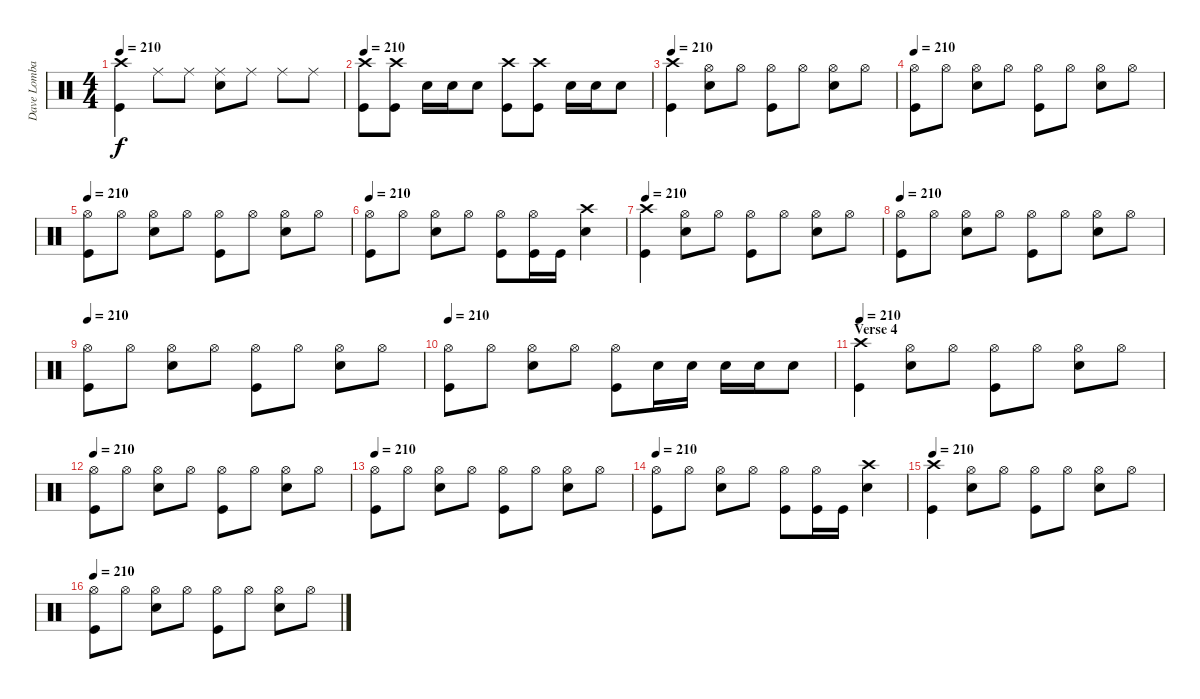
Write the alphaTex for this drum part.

\track ("Dave Lombardo" "Dave Lomba") {instrument percussion}
\staff {score}
\articulation defaults
\ts (4 4)
\tempo 210
\clef neutral
\ks c
("Crash high (hit)" "Kick (hit)").4{dy f} "Ride (middle)".8 "Ride (middle)".8 ("Ride (middle)" "Snare (hit) 2").8 "Ride (middle)".8 "Ride (middle)".8 "Ride (middle)".8 |
\tempo 210
("Crash high (hit)" "Kick (hit)").8 ("Crash high (hit)" "Kick (hit)").8 "Snare (hit) 2".16 "Snare (hit) 2".16 "Snare (hit) 2".8 ("Crash high (hit)" "Kick (hit)").8 ("Crash high (hit)" "Kick (hit)").8 "Snare (hit) 2".16 "Snare (hit) 2".16 "Snare (hit) 2".8 |
\tempo 210
("Crash high (hit)" "Kick (hit)").4 ("Hi-Hat (open)" "Snare (hit) 2").8 "Hi-Hat (open)".8 ("Hi-Hat (open)" "Kick (hit)").8 "Hi-Hat (open)".8 ("Hi-Hat (open)" "Snare (hit) 2").8 "Hi-Hat (open)".8 |
\tempo 210
("Hi-Hat (open)" "Kick (hit)").8 "Hi-Hat (open)".8 ("Hi-Hat (open)" "Snare (hit) 2").8 "Hi-Hat (open)".8 ("Hi-Hat (open)" "Kick (hit)").8 "Hi-Hat (open)".8 ("Hi-Hat (open)" "Snare (hit) 2").8 "Hi-Hat (open)".8 |
\tempo 210
("Hi-Hat (open)" "Kick (hit)").8 "Hi-Hat (open)".8 ("Hi-Hat (open)" "Snare (hit) 2").8 "Hi-Hat (open)".8 ("Hi-Hat (open)" "Kick (hit)").8 "Hi-Hat (open)".8 ("Hi-Hat (open)" "Snare (hit) 2").8 "Hi-Hat (open)".8 |
\tempo 210
("Hi-Hat (open)" "Kick (hit)").8 "Hi-Hat (open)".8 ("Hi-Hat (open)" "Snare (hit) 2").8 "Hi-Hat (open)".8 ("Hi-Hat (open)" "Kick (hit)").8 ("Hi-Hat (open)" "Kick (hit)").16 "Kick (hit)".16 ("Crash high (hit)" "Snare (hit) 2").4 |
\tempo 210
("Crash high (hit)" "Kick (hit)").4 ("Hi-Hat (open)" "Snare (hit) 2").8 "Hi-Hat (open)".8 ("Hi-Hat (open)" "Kick (hit)").8 "Hi-Hat (open)".8 ("Hi-Hat (open)" "Snare (hit) 2").8 "Hi-Hat (open)".8 |
\tempo 210
("Hi-Hat (open)" "Kick (hit)").8 "Hi-Hat (open)".8 ("Hi-Hat (open)" "Snare (hit) 2").8 "Hi-Hat (open)".8 ("Hi-Hat (open)" "Kick (hit)").8 "Hi-Hat (open)".8 ("Hi-Hat (open)" "Snare (hit) 2").8 "Hi-Hat (open)".8 |
\tempo 210
("Hi-Hat (open)" "Kick (hit)").8 "Hi-Hat (open)".8 ("Hi-Hat (open)" "Snare (hit) 2").8 "Hi-Hat (open)".8 ("Hi-Hat (open)" "Kick (hit)").8 "Hi-Hat (open)".8 ("Hi-Hat (open)" "Snare (hit) 2").8 "Hi-Hat (open)".8 |
\tempo 210
("Hi-Hat (open)" "Kick (hit)").8 "Hi-Hat (open)".8 ("Hi-Hat (open)" "Snare (hit) 2").8 "Hi-Hat (open)".8 ("Hi-Hat (open)" "Kick (hit)").8 "Snare (hit) 2".16 "Snare (hit) 2".16 "Snare (hit) 2".16 "Snare (hit) 2".16 "Snare (hit) 2".8 |
\section ("" "Verse 4")
\tempo 210
("Crash high (hit)" "Kick (hit)").4 ("Hi-Hat (open)" "Snare (hit) 2").8 "Hi-Hat (open)".8 ("Hi-Hat (open)" "Kick (hit)").8 "Hi-Hat (open)".8 ("Hi-Hat (open)" "Snare (hit) 2").8 "Hi-Hat (open)".8 |
\tempo 210
("Hi-Hat (open)" "Kick (hit)").8 "Hi-Hat (open)".8 ("Hi-Hat (open)" "Snare (hit) 2").8 "Hi-Hat (open)".8 ("Hi-Hat (open)" "Kick (hit)").8 "Hi-Hat (open)".8 ("Hi-Hat (open)" "Snare (hit) 2").8 "Hi-Hat (open)".8 |
\tempo 210
("Hi-Hat (open)" "Kick (hit)").8 "Hi-Hat (open)".8 ("Hi-Hat (open)" "Snare (hit) 2").8 "Hi-Hat (open)".8 ("Hi-Hat (open)" "Kick (hit)").8 "Hi-Hat (open)".8 ("Hi-Hat (open)" "Snare (hit) 2").8 "Hi-Hat (open)".8 |
\tempo 210
("Hi-Hat (open)" "Kick (hit)").8 "Hi-Hat (open)".8 ("Hi-Hat (open)" "Snare (hit) 2").8 "Hi-Hat (open)".8 ("Hi-Hat (open)" "Kick (hit)").8 ("Hi-Hat (open)" "Kick (hit)").16 "Kick (hit)".16 ("Crash high (hit)" "Snare (hit) 2").4 |
\tempo 210
("Crash high (hit)" "Kick (hit)").4 ("Hi-Hat (open)" "Snare (hit) 2").8 "Hi-Hat (open)".8 ("Hi-Hat (open)" "Kick (hit)").8 "Hi-Hat (open)".8 ("Hi-Hat (open)" "Snare (hit) 2").8 "Hi-Hat (open)".8 |
\tempo 210
("Hi-Hat (open)" "Kick (hit)").8 "Hi-Hat (open)".8 ("Hi-Hat (open)" "Snare (hit) 2").8 "Hi-Hat (open)".8 ("Hi-Hat (open)" "Kick (hit)").8 "Hi-Hat (open)".8 ("Hi-Hat (open)" "Snare (hit) 2").8 "Hi-Hat (open)".8
